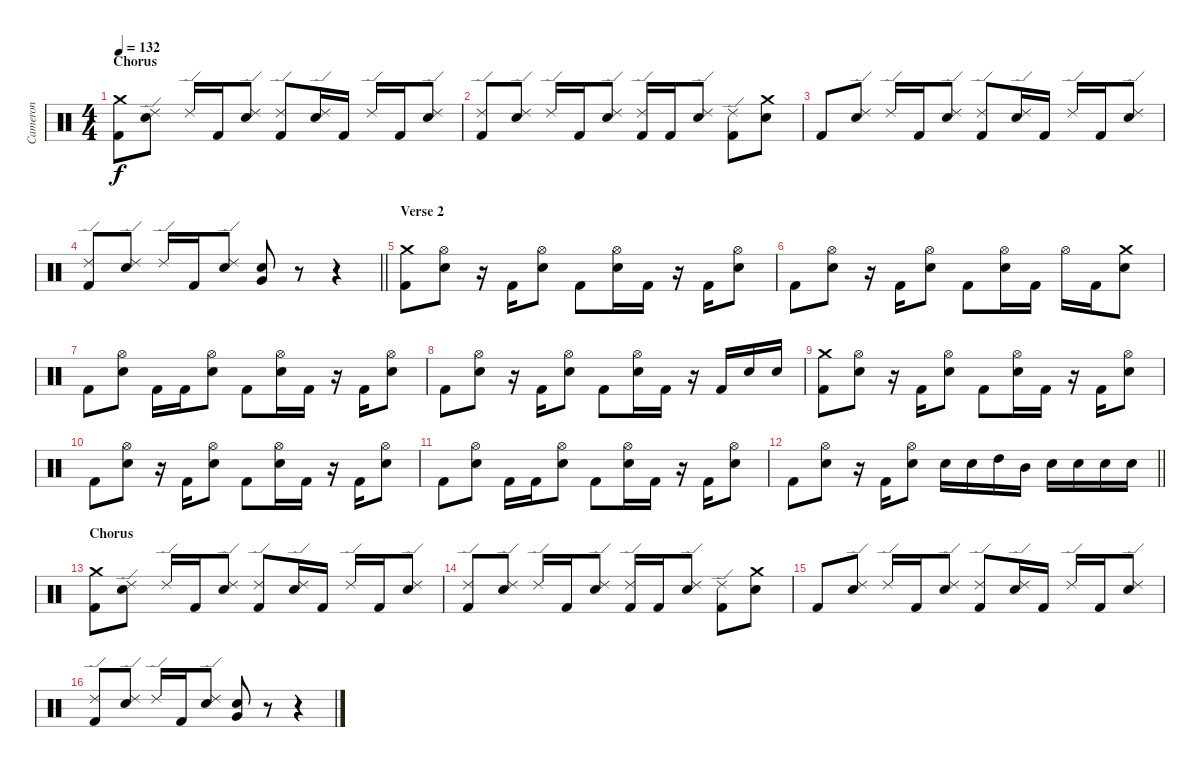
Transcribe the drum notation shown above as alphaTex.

\track ("Cameron" "Cameron") {instrument percussion}
\staff {score}
\articulation defaults
\ts (4 4)
\section ("" "Chorus")
\tempo 132
\clef neutral
\ks c
("Crash medium (hit)" "Kick (hit) 2").8{dy f} ("Ride (edge) 2" "Snare (hit) 2").8 "Ride (edge) 2".16 "Kick (hit) 2".16 ("Ride (edge) 2" "Snare (hit) 2").8 ("Ride (edge) 2" "Kick (hit) 2").8 ("Ride (edge) 2" "Snare (hit) 2").16 "Kick (hit) 2".16 "Ride (edge) 2".16 "Kick (hit) 2".16 ("Ride (edge) 2" "Snare (hit) 2").8 |
("Ride (edge) 2" "Kick (hit) 2").8 ("Ride (edge) 2" "Snare (hit) 2").8 "Ride (edge) 2".16 "Kick (hit) 2".16 ("Ride (edge) 2" "Snare (hit) 2").8 ("Ride (edge) 2" "Kick (hit) 2").16 "Kick (hit) 2".16 ("Ride (edge) 2" "Snare (hit) 2").8 ("Ride (edge) 2" "Kick (hit) 2").8 ("Crash medium (hit)" "Snare (hit) 2").8 |
"Kick (hit) 2".8 ("Ride (edge) 2" "Snare (hit) 2").8 "Ride (edge) 2".16 "Kick (hit) 2".16 ("Ride (edge) 2" "Snare (hit) 2").8 ("Ride (edge) 2" "Kick (hit) 2").8 ("Ride (edge) 2" "Snare (hit) 2").16 "Kick (hit) 2".16 "Ride (edge) 2".16 "Kick (hit) 2".16 ("Ride (edge) 2" "Snare (hit) 2").8 |
\barLineRight lightlight
("Ride (edge) 2" "Kick (hit) 2").8 ("Ride (edge) 2" "Snare (hit) 2").8 "Ride (edge) 2".16 "Kick (hit) 2".16 ("Ride (edge) 2" "Snare (hit) 2").8 ("Snare (hit) 2" "Very Low Tom (hit)").8 r.8 r.4 |
\section ("" "Verse 2")
("Crash medium (hit)" "Kick (hit) 2").8 ("Hi-Hat (open)" "Snare (hit) 2").8 r.16 "Kick (hit) 2".16 ("Hi-Hat (open)" "Snare (hit) 2").8 "Kick (hit) 2".8 ("Hi-Hat (open)" "Snare (hit) 2").16 "Kick (hit) 2".16 r.16 "Kick (hit) 2".16 ("Hi-Hat (open)" "Snare (hit) 2").8 |
"Kick (hit) 2".8 ("Hi-Hat (open)" "Snare (hit) 2").8 r.16 "Kick (hit) 2".16 ("Hi-Hat (open)" "Snare (hit) 2").8 "Kick (hit) 2".8 ("Hi-Hat (open)" "Snare (hit) 2").16 "Kick (hit) 2".16 "Hi-Hat (open)".16 "Kick (hit) 2".16 ("Crash medium (hit)" "Snare (hit) 2").8 |
"Kick (hit) 2".8 ("Hi-Hat (open)" "Snare (hit) 2").8 "Kick (hit) 2".16 "Kick (hit) 2".16 ("Hi-Hat (open)" "Snare (hit) 2").8 "Kick (hit) 2".8 ("Hi-Hat (open)" "Snare (hit) 2").16 "Kick (hit) 2".16 r.16 "Kick (hit) 2".16 ("Hi-Hat (open)" "Snare (hit) 2").8 |
"Kick (hit) 2".8 ("Hi-Hat (open)" "Snare (hit) 2").8 r.16 "Kick (hit) 2".16 ("Hi-Hat (open)" "Snare (hit) 2").8 "Kick (hit) 2".8 ("Hi-Hat (open)" "Snare (hit) 2").16 "Kick (hit) 2".16 r.16 "Kick (hit) 2".16 "Snare (hit) 2".16 "Snare (hit) 2".16 |
("Crash medium (hit)" "Kick (hit) 2").8 ("Hi-Hat (open)" "Snare (hit) 2").8 r.16 "Kick (hit) 2".16 ("Hi-Hat (open)" "Snare (hit) 2").8 "Kick (hit) 2".8 ("Hi-Hat (open)" "Snare (hit) 2").16 "Kick (hit) 2".16 r.16 "Kick (hit) 2".16 ("Hi-Hat (open)" "Snare (hit) 2").8 |
"Kick (hit) 2".8 ("Hi-Hat (open)" "Snare (hit) 2").8 r.16 "Kick (hit) 2".16 ("Hi-Hat (open)" "Snare (hit) 2").8 "Kick (hit) 2".8 ("Hi-Hat (open)" "Snare (hit) 2").16 "Kick (hit) 2".16 r.16 "Kick (hit) 2".16 ("Hi-Hat (open)" "Snare (hit) 2").8 |
"Kick (hit) 2".8 ("Hi-Hat (open)" "Snare (hit) 2").8 "Kick (hit) 2".16 "Kick (hit) 2".16 ("Hi-Hat (open)" "Snare (hit) 2").8 "Kick (hit) 2".8 ("Hi-Hat (open)" "Snare (hit) 2").16 "Kick (hit) 2".16 r.16 "Kick (hit) 2".16 ("Hi-Hat (open)" "Snare (hit) 2").8 |
\barLineRight lightlight "Kick (hit) 2".8
("Hi-Hat (open)" "Snare (hit) 2").8 r.16 "Kick (hit) 2".16 ("Hi-Hat (open)" "Snare (hit) 2").8 "Snare (hit) 2".16 "Snare (hit) 2".16 "High Tom (hit)".16 "Mid Tom (hit)".16 "Snare (hit) 2".16 "Snare (hit) 2".16 "Snare (hit) 2".16 "Snare (hit) 2".16 |
\section ("" "Chorus")
("Crash medium (hit)" "Kick (hit) 2").8 ("Ride (edge) 2" "Snare (hit) 2").8 "Ride (edge) 2".16 "Kick (hit) 2".16 ("Ride (edge) 2" "Snare (hit) 2").8 ("Ride (edge) 2" "Kick (hit) 2").8 ("Ride (edge) 2" "Snare (hit) 2").16 "Kick (hit) 2".16 "Ride (edge) 2".16 "Kick (hit) 2".16 ("Ride (edge) 2" "Snare (hit) 2").8 |
("Ride (edge) 2" "Kick (hit) 2").8 ("Ride (edge) 2" "Snare (hit) 2").8 "Ride (edge) 2".16 "Kick (hit) 2".16 ("Ride (edge) 2" "Snare (hit) 2").8 ("Ride (edge) 2" "Kick (hit) 2").16 "Kick (hit) 2".16 ("Ride (edge) 2" "Snare (hit) 2").8 ("Ride (edge) 2" "Kick (hit) 2").8 ("Crash medium (hit)" "Snare (hit) 2").8 |
"Kick (hit) 2".8 ("Ride (edge) 2" "Snare (hit) 2").8 "Ride (edge) 2".16 "Kick (hit) 2".16 ("Ride (edge) 2" "Snare (hit) 2").8 ("Ride (edge) 2" "Kick (hit) 2").8 ("Ride (edge) 2" "Snare (hit) 2").16 "Kick (hit) 2".16 "Ride (edge) 2".16 "Kick (hit) 2".16 ("Ride (edge) 2" "Snare (hit) 2").8 |
("Ride (edge) 2" "Kick (hit) 2").8 ("Ride (edge) 2" "Snare (hit) 2").8 "Ride (edge) 2".16 "Kick (hit) 2".16 ("Ride (edge) 2" "Snare (hit) 2").8 ("Snare (hit) 2" "Very Low Tom (hit)").8 r.8 r.4
